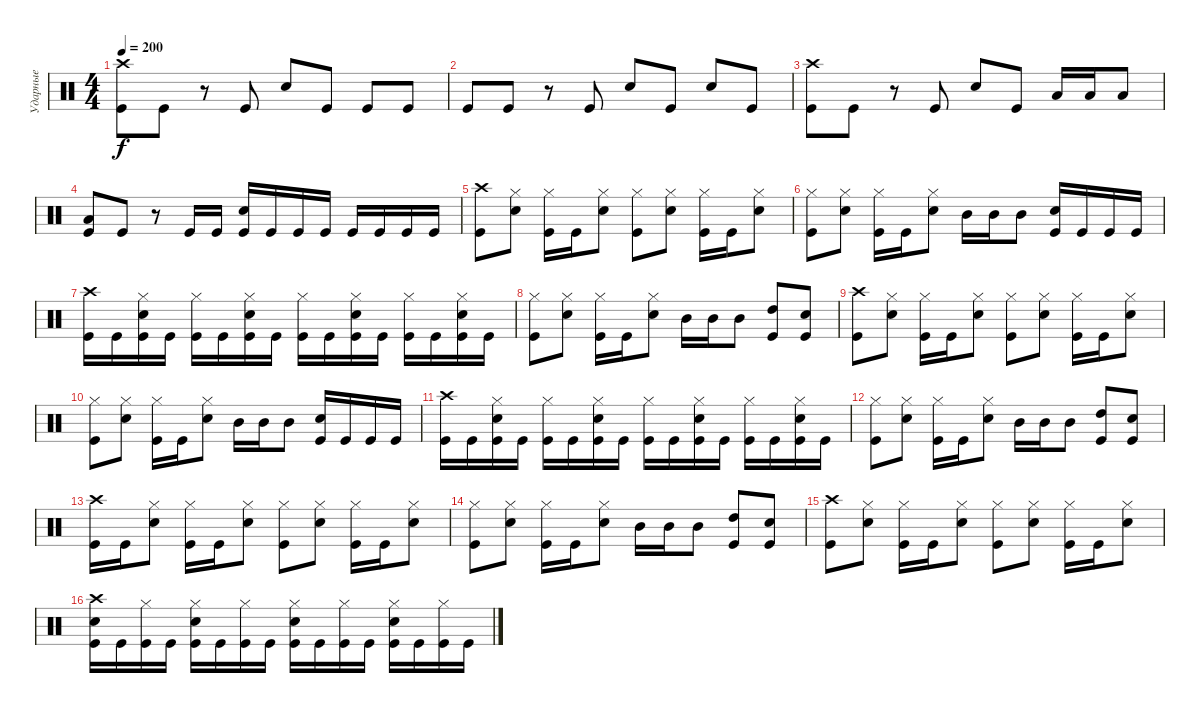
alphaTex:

\track ("Ударные" "Ударные") {instrument percussion}
\staff {score}
\articulation defaults
\ts (4 4)
\tempo 200
\clef neutral
\ks c
("Crash high (hit)" "Kick (hit)").8{dy f} "Kick (hit)".8 r.8 "Kick (hit)".8 "Electric Snare (hit)".8 "Kick (hit)".8 "Kick (hit)".8 "Kick (hit)".8 |
"Kick (hit)".8 "Kick (hit)".8 r.8 "Kick (hit)".8 "Electric Snare (hit)".8 "Kick (hit)".8 "Electric Snare (hit)".8 "Kick (hit)".8 |
("Crash high (hit)" "Kick (hit)").8 "Kick (hit)".8 r.8 "Kick (hit)".8 "Electric Snare (hit)".8 "Kick (hit)".8 "Low Tom (hit)".16 "Low Tom (hit)".16 "Low Tom (hit)".8 |
("Low Tom (hit)" "Kick (hit)").8 "Kick (hit)".8 r.8 "Kick (hit)".16 "Kick (hit)".16 ("Electric Snare (hit)" "Kick (hit)").16 "Kick (hit)".16 "Kick (hit)".16 "Kick (hit)".16 "Kick (hit)".16 "Kick (hit)".16 "Kick (hit)".16 "Kick (hit)".16 |
("Crash high (hit)" "Kick (hit)").8 ("Hi-Hat (closed)" "Electric Snare (hit)").8 ("Hi-Hat (closed)" "Kick (hit)").16 "Kick (hit)".16 ("Hi-Hat (closed)" "Electric Snare (hit)").8 ("Hi-Hat (closed)" "Kick (hit)").8 ("Hi-Hat (closed)" "Electric Snare (hit)").8 ("Hi-Hat (closed)" "Kick (hit)").16 "Kick (hit)".16 ("Hi-Hat (closed)" "Electric Snare (hit)").8 |
("Hi-Hat (closed)" "Kick (hit)").8 ("Hi-Hat (closed)" "Electric Snare (hit)").8 ("Hi-Hat (closed)" "Kick (hit)").16 "Kick (hit)".16 ("Hi-Hat (closed)" "Electric Snare (hit)").8 "Mid Tom (hit)".16 "Mid Tom (hit)".16 "Mid Tom (hit)".8 ("Electric Snare (hit)" "Kick (hit)").16 "Kick (hit)".16 "Kick (hit)".16 "Kick (hit)".16 |
("Crash high (hit)" "Kick (hit)").16 "Kick (hit)".16 ("Hi-Hat (closed)" "Electric Snare (hit)" "Kick (hit)").16 "Kick (hit)".16 ("Hi-Hat (closed)" "Kick (hit)").16 "Kick (hit)".16 ("Hi-Hat (closed)" "Electric Snare (hit)" "Kick (hit)").16 "Kick (hit)".16 ("Hi-Hat (closed)" "Kick (hit)").16 "Kick (hit)".16 ("Hi-Hat (closed)" "Electric Snare (hit)" "Kick (hit)").16 "Kick (hit)".16 ("Hi-Hat (closed)" "Kick (hit)").16 "Kick (hit)".16 ("Hi-Hat (closed)" "Electric Snare (hit)" "Kick (hit)").16 "Kick (hit)".16 |
("Hi-Hat (closed)" "Kick (hit)").8 ("Hi-Hat (closed)" "Electric Snare (hit)").8 ("Hi-Hat (closed)" "Kick (hit)").16 "Kick (hit)".16 ("Hi-Hat (closed)" "Electric Snare (hit)").8 "Mid Tom (hit)".16 "Mid Tom (hit)".16 "Mid Tom (hit)".8 ("High Tom (hit)" "Kick (hit)").8 ("Electric Snare (hit)" "Kick (hit)").8 |
("Crash high (hit)" "Kick (hit)").8 ("Hi-Hat (closed)" "Electric Snare (hit)").8 ("Hi-Hat (closed)" "Kick (hit)").16 "Kick (hit)".16 ("Hi-Hat (closed)" "Electric Snare (hit)").8 ("Hi-Hat (closed)" "Kick (hit)").8 ("Hi-Hat (closed)" "Electric Snare (hit)").8 ("Hi-Hat (closed)" "Kick (hit)").16 "Kick (hit)".16 ("Hi-Hat (closed)" "Electric Snare (hit)").8 |
("Hi-Hat (closed)" "Kick (hit)").8 ("Hi-Hat (closed)" "Electric Snare (hit)").8 ("Hi-Hat (closed)" "Kick (hit)").16 "Kick (hit)".16 ("Hi-Hat (closed)" "Electric Snare (hit)").8 "Mid Tom (hit)".16 "Mid Tom (hit)".16 "Mid Tom (hit)".8 ("Electric Snare (hit)" "Kick (hit)").16 "Kick (hit)".16 "Kick (hit)".16 "Kick (hit)".16 |
("Crash high (hit)" "Kick (hit)").16 "Kick (hit)".16 ("Hi-Hat (closed)" "Electric Snare (hit)" "Kick (hit)").16 "Kick (hit)".16 ("Hi-Hat (closed)" "Kick (hit)").16 "Kick (hit)".16 ("Hi-Hat (closed)" "Electric Snare (hit)" "Kick (hit)").16 "Kick (hit)".16 ("Hi-Hat (closed)" "Kick (hit)").16 "Kick (hit)".16 ("Hi-Hat (closed)" "Electric Snare (hit)" "Kick (hit)").16 "Kick (hit)".16 ("Hi-Hat (closed)" "Kick (hit)").16 "Kick (hit)".16 ("Hi-Hat (closed)" "Electric Snare (hit)" "Kick (hit)").16 "Kick (hit)".16 |
("Hi-Hat (closed)" "Kick (hit)").8 ("Hi-Hat (closed)" "Electric Snare (hit)").8 ("Hi-Hat (closed)" "Kick (hit)").16 "Kick (hit)".16 ("Hi-Hat (closed)" "Electric Snare (hit)").8 "Mid Tom (hit)".16 "Mid Tom (hit)".16 "Mid Tom (hit)".8 ("High Tom (hit)" "Kick (hit)").8 ("Electric Snare (hit)" "Kick (hit)").8 |
("Crash high (hit)" "Kick (hit)").16 "Kick (hit)".16 ("Hi-Hat (closed)" "Electric Snare (hit)").8 ("Hi-Hat (closed)" "Kick (hit)").16 "Kick (hit)".16 ("Hi-Hat (closed)" "Electric Snare (hit)").8 ("Hi-Hat (closed)" "Kick (hit)").8 ("Hi-Hat (closed)" "Electric Snare (hit)").8 ("Hi-Hat (closed)" "Kick (hit)").16 "Kick (hit)".16 ("Hi-Hat (closed)" "Electric Snare (hit)").8 |
("Hi-Hat (closed)" "Kick (hit)").8 ("Hi-Hat (closed)" "Electric Snare (hit)").8 ("Hi-Hat (closed)" "Kick (hit)").16 "Kick (hit)".16 ("Hi-Hat (closed)" "Electric Snare (hit)").8 "Mid Tom (hit)".16 "Mid Tom (hit)".16 "Mid Tom (hit)".8 ("High Tom (hit)" "Kick (hit)").8 ("Electric Snare (hit)" "Kick (hit)").8 |
("Crash high (hit)" "Kick (hit)").8 ("Hi-Hat (closed)" "Electric Snare (hit)").8 ("Hi-Hat (closed)" "Kick (hit)").16 "Kick (hit)".16 ("Hi-Hat (closed)" "Electric Snare (hit)").8 ("Hi-Hat (closed)" "Kick (hit)").8 ("Hi-Hat (closed)" "Electric Snare (hit)").8 ("Hi-Hat (closed)" "Kick (hit)").16 "Kick (hit)".16 ("Hi-Hat (closed)" "Electric Snare (hit)").8 |
("Crash high (hit)" "Electric Snare (hit)" "Kick (hit)").16 "Kick (hit)".16 ("Hi-Hat (closed)" "Kick (hit)").16 "Kick (hit)".16 ("Hi-Hat (closed)" "Electric Snare (hit)" "Kick (hit)").16 "Kick (hit)".16 ("Hi-Hat (closed)" "Kick (hit)").16 "Kick (hit)".16 ("Hi-Hat (closed)" "Electric Snare (hit)" "Kick (hit)").16 "Kick (hit)".16 ("Hi-Hat (closed)" "Kick (hit)").16 "Kick (hit)".16 ("Hi-Hat (closed)" "Electric Snare (hit)" "Kick (hit)").16 "Kick (hit)".16 ("Hi-Hat (closed)" "Kick (hit)").16 "Kick (hit)".16
